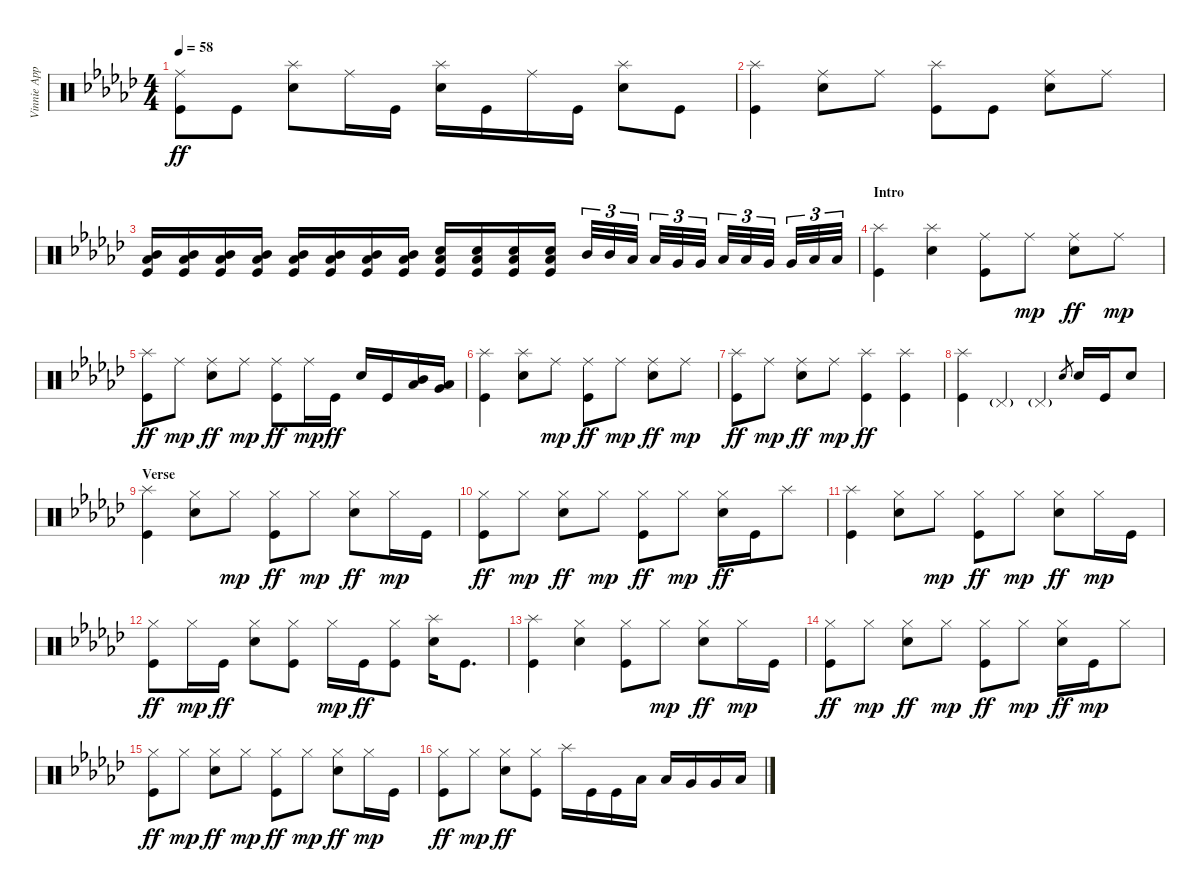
\track ("Vinnie Appice" "Vinnie App") {instrument percussion}
\staff {score}
\articulation defaults
\ts (4 4)
\tempo 58
\clef neutral
\ks ebminor
("Kick (hit)" "Ride (middle)").8{dy ff} "Kick (hit)".8 ("Splash (hit)" "Snare (hit) 2").8 "Ride (middle)".16 "Kick (hit)".16 ("Snare (hit) 2" "Splash (hit)").16 "Kick (hit)".16 "Ride (middle)".16 "Kick (hit)".16 ("Snare (hit) 2" "Splash (hit)").8 "Kick (hit)".8 |
("Kick (hit)" "Splash (hit)").4 ("Ride (middle)" "Snare (hit) 2").8 "Ride (middle)".8 ("Kick (hit)" "Splash (hit)").8 "Kick (hit)".8 ("Ride (middle)" "Snare (hit) 2").8 "Ride (middle)".8 |
("Kick (hit)" "Low Floor Tom (hit)" "Mid Tom (hit)").16 ("Kick (hit)" "Low Floor Tom (hit)" "Mid Tom (hit)").16 ("Kick (hit)" "Low Floor Tom (hit)" "Mid Tom (hit)").16 ("Kick (hit)" "Low Floor Tom (hit)" "Mid Tom (hit)").16 ("Kick (hit)" "Low Floor Tom (hit)" "Mid Tom (hit)").16 ("Kick (hit)" "Low Floor Tom (hit)" "Mid Tom (hit)").16 ("Kick (hit)" "Low Floor Tom (hit)" "Mid Tom (hit)").16 ("Kick (hit)" "Low Floor Tom (hit)" "Mid Tom (hit)").16 ("Kick (hit)" "Low Floor Tom (hit)" "Snare (hit) 2").16 ("Kick (hit)" "Low Floor Tom (hit)" "Snare (hit) 2").16 ("Kick (hit)" "Low Floor Tom (hit)" "Snare (hit) 2").16 ("Kick (hit)" "Low Floor Tom (hit)" "Snare (hit) 2").16 "Mid Tom (hit)".32{tu (3 2)} "Mid Tom (hit)".32{tu (3 2)} "Low Tom (hit)".32{tu (3 2)} "Low Tom (hit)".32{tu (3 2)} "Very Low Tom (hit)".32{tu (3 2)} "Very Low Tom (hit)".32{tu (3 2)} "Low Tom (hit)".32{tu (3 2)} "Low Tom (hit)".32{tu (3 2)} "Very Low Tom (hit)".32{tu (3 2)} "Very Low Tom (hit)".32{tu (3 2)} "Low Floor Tom (hit)".32{tu (3 2)} "Low Floor Tom (hit)".32{tu (3 2)} |
\section ("" "Intro")
("Kick (hit)" "Splash (hit)").4 ("Splash (hit)" "Snare (hit) 2").4 ("Kick (hit)" "Ride (middle)").8 "Ride (middle)".8{dy mp} ("Snare (hit) 2" "Ride (middle)").8{dy ff} "Ride (middle)".8{dy mp} |
("Splash (hit)" "Kick (hit)").8{dy ff} "Ride (middle)".8{dy mp} ("Ride (middle)" "Snare (hit) 2").8{dy ff} "Ride (middle)".8{dy mp} ("Kick (hit)" "Ride (middle)").8{dy ff} "Ride (middle)".16{dy mp} "Kick (hit)".16{dy ff} "Snare (hit) 2".16 "Kick (hit)".16 ("Low Tom (hit)" "Mid Tom (hit)").16 ("Low Floor Tom (hit)" "Very Low Tom (hit)").16 |
("Kick (hit)" "Splash (hit)").4 ("Splash (hit)" "Snare (hit) 2").8 "Ride (middle)".8{dy mp} ("Ride (middle)" "Kick (hit)").8{dy ff} "Ride (middle)".8{dy mp} ("Snare (hit) 2" "Ride (middle)").8{dy ff} "Ride (middle)".8{dy mp} |
("Kick (hit)" "Splash (hit)").8{dy ff} "Ride (middle)".8{dy mp} ("Snare (hit) 2" "Ride (middle)").8{dy ff} "Ride (middle)".8{dy mp} ("Kick (hit)" "Splash (hit)").4{dy ff} ("Kick (hit)" "Splash (hit)").4 |
("Kick (hit)" "Splash (hit)").4 "Pedal Hi-Hat (hit)"{g}.4 "Pedal Hi-Hat (hit)"{g}.4 "Snare (hit)".8{gr} "Snare (hit) 2".16 "Kick (hit)".16 "Snare (hit) 2".8 |
\section ("" "Verse")
("Kick (hit)" "Splash (hit)").4 ("Snare (hit) 2" "Hi-Hat (closed)").8 "Hi-Hat (closed)".8{dy mp} ("Kick (hit)" "Hi-Hat (closed)").8{dy ff} "Hi-Hat (closed)".8{dy mp} ("Hi-Hat (closed)" "Snare (hit) 2").8{dy ff} "Hi-Hat (closed)".16{dy mp} "Kick (hit)".16 |
("Kick (hit)" "Hi-Hat (closed)").8{dy ff} "Hi-Hat (closed)".8{dy mp} ("Hi-Hat (closed)" "Snare (hit) 2").8{dy ff} "Hi-Hat (closed)".8{dy mp} ("Hi-Hat (closed)" "Kick (hit)").8{dy ff} "Hi-Hat (closed)".8{dy mp} ("Hi-Hat (closed)" "Snare (hit) 2").16{dy ff} "Kick (hit)".16 "Splash (hit)".8 |
("Kick (hit)" "Splash (hit)").4 ("Snare (hit) 2" "Hi-Hat (closed)").8 "Hi-Hat (closed)".8{dy mp} ("Kick (hit)" "Hi-Hat (closed)").8{dy ff} "Hi-Hat (closed)".8{dy mp} ("Hi-Hat (closed)" "Snare (hit) 2").8{dy ff} "Hi-Hat (closed)".16{dy mp} "Kick (hit)".16 |
("Kick (hit)" "Hi-Hat (closed)").8{dy ff} "Hi-Hat (closed)".16{dy mp} "Kick (hit)".16{dy ff} ("Snare (hit) 2" "Hi-Hat (closed)").8 ("Kick (hit)" "Hi-Hat (closed)").8 "Hi-Hat (closed)".16{dy mp} "Kick (hit)".16{dy ff} ("Kick (hit)" "Hi-Hat (closed)").8 ("Splash (hit)" "Snare (hit) 2").16 "Kick (hit)".8{d} |
("Kick (hit)" "Splash (hit)").4 ("Snare (hit) 2" "Hi-Hat (closed)").4 ("Kick (hit)" "Hi-Hat (closed)").8 "Hi-Hat (closed)".8{dy mp} ("Hi-Hat (closed)" "Snare (hit) 2").8{dy ff} "Hi-Hat (closed)".16{dy mp} "Kick (hit)".16 |
("Kick (hit)" "Hi-Hat (closed)").8{dy ff} "Hi-Hat (closed)".8{dy mp} ("Hi-Hat (closed)" "Snare (hit) 2").8{dy ff} "Hi-Hat (closed)".8{dy mp} ("Kick (hit)" "Hi-Hat (closed)").8{dy ff} "Hi-Hat (closed)".8{dy mp} ("Hi-Hat (closed)" "Snare (hit) 2").16{dy ff} "Kick (hit)".16{dy mp} "Hi-Hat (closed)".8 |
("Kick (hit)" "Hi-Hat (closed)").8{dy ff} "Hi-Hat (closed)".8{dy mp} ("Hi-Hat (closed)" "Snare (hit) 2").8{dy ff} "Hi-Hat (closed)".8{dy mp} ("Kick (hit)" "Hi-Hat (closed)").8{dy ff} "Hi-Hat (closed)".8{dy mp} ("Hi-Hat (closed)" "Snare (hit) 2").8{dy ff} "Hi-Hat (closed)".16{dy mp} "Kick (hit)".16 |
("Kick (hit)" "Hi-Hat (closed)").8{dy ff} "Hi-Hat (closed)".8{dy mp} ("Snare (hit) 2" "Hi-Hat (closed)").8{dy ff} ("Hi-Hat (closed)" "Kick (hit)").8 "Splash (hit)".16 "Kick (hit)".16 "Kick (hit)".16 "Low Tom (hit)".16 "Low Tom (hit)".16 "Very Low Tom (hit)".16 "Very Low Tom (hit)".16 "Low Floor Tom (hit)".16
